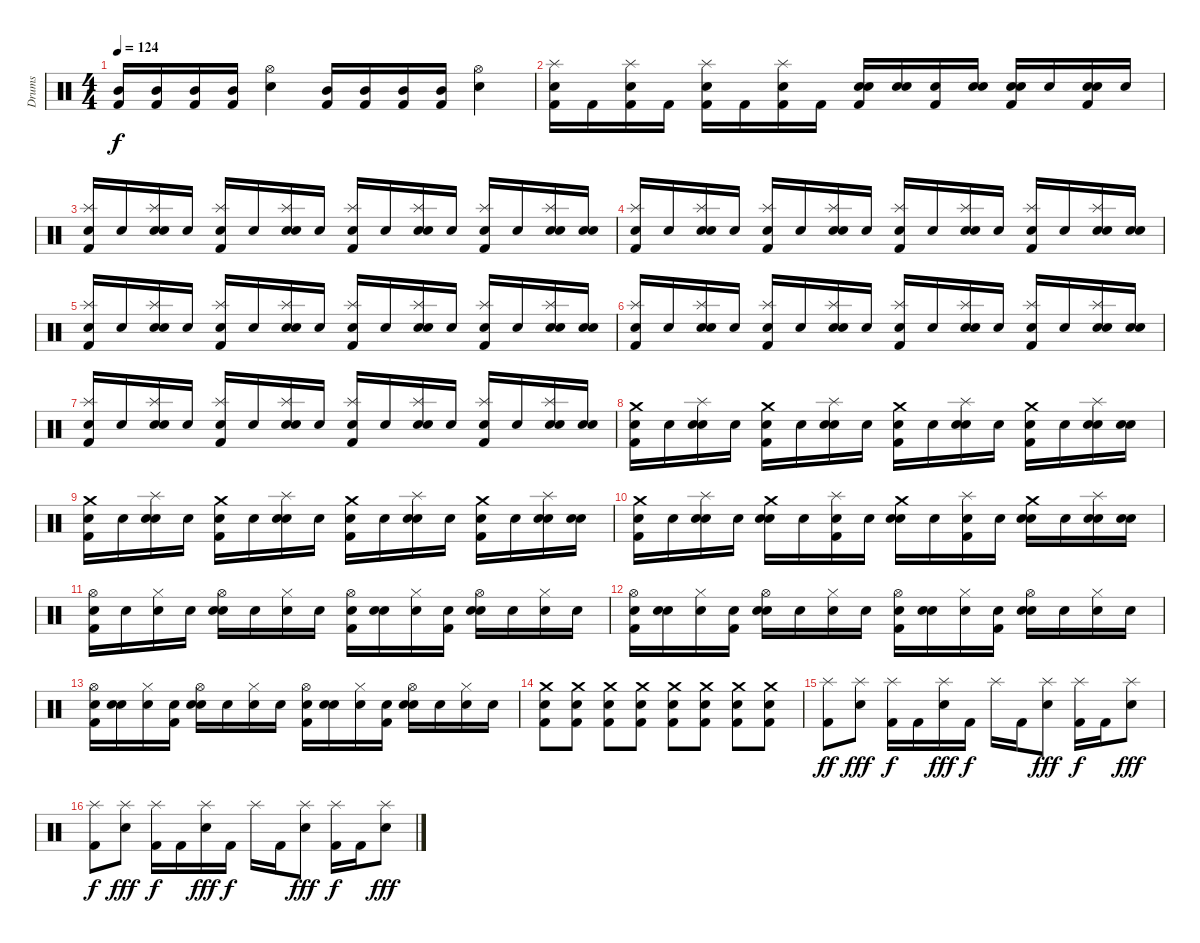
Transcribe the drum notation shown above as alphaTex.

\track ("Drums" "Drums") {instrument percussion}
\staff {score}
\articulation defaults
\ts (4 4)
\tempo 124
\clef neutral
\ks c
("Mid Tom (hit)" "Kick (hit) 2").16{dy f} ("Mid Tom (hit)" "Kick (hit) 2").16 ("Mid Tom (hit)" "Kick (hit) 2").16 ("Mid Tom (hit)" "Kick (hit) 2").16 ("Hi-Hat (open)" "Electric Snare (hit)").4 ("Mid Tom (hit)" "Kick (hit) 2").16 ("Mid Tom (hit)" "Kick (hit) 2").16 ("Mid Tom (hit)" "Kick (hit) 2").16 ("Mid Tom (hit)" "Kick (hit) 2").16 ("Hi-Hat (open)" "Electric Snare (hit)").4 |
("Splash (hit)" "Electric Snare (hit)" "Kick (hit) 2").16 "Kick (hit) 2".16 ("Splash (hit)" "Electric Snare (hit)" "Kick (hit) 2").16 "Kick (hit) 2".16 ("Splash (hit)" "Electric Snare (hit)" "Kick (hit) 2").16 "Kick (hit) 2".16 ("Splash (hit)" "Electric Snare (hit)" "Kick (hit) 2").16 "Kick (hit) 2".16 ("Snare (hit)"{x} "Electric Snare (hit)" "Kick (hit) 2").16 ("Snare (hit)"{x} "Electric Snare (hit)").16 ("Snare (hit)"{x} "Kick (hit) 2").16 ("Snare (hit)"{x} "Electric Snare (hit)").16 ("Snare (hit)"{x} "Electric Snare (hit)" "Kick (hit) 2").16 "Snare (hit)"{x}.16 ("Snare (hit)"{x} "Electric Snare (hit)" "Kick (hit) 2").16 "Snare (hit)"{x}.16 |
("Snare (hit)"{x} "Splash (hit)" "Kick (hit) 2").16 "Snare (hit)"{x}.16 ("Snare (hit)"{x} "Splash (hit)" "Electric Snare (hit)").16 "Snare (hit)"{x}.16 ("Snare (hit)"{x} "Splash (hit)" "Kick (hit) 2").16 "Snare (hit)"{x}.16 ("Snare (hit)"{x} "Splash (hit)" "Electric Snare (hit)").16 "Snare (hit)"{x}.16 ("Snare (hit)"{x} "Splash (hit)" "Kick (hit) 2").16 "Snare (hit)"{x}.16 ("Snare (hit)"{x} "Splash (hit)" "Electric Snare (hit)").16 "Snare (hit)"{x}.16 ("Snare (hit)"{x} "Splash (hit)" "Kick (hit) 2").16 "Snare (hit)"{x}.16 ("Snare (hit)"{x} "Splash (hit)" "Electric Snare (hit)").16 ("Snare (hit)"{x} "Electric Snare (hit)").16 |
("Snare (hit)"{x} "Splash (hit)" "Kick (hit) 2").16 "Snare (hit)"{x}.16 ("Snare (hit)"{x} "Splash (hit)" "Electric Snare (hit)").16 "Snare (hit)"{x}.16 ("Snare (hit)"{x} "Splash (hit)" "Kick (hit) 2").16 "Snare (hit)"{x}.16 ("Snare (hit)"{x} "Splash (hit)" "Electric Snare (hit)").16 "Snare (hit)"{x}.16 ("Snare (hit)"{x} "Splash (hit)" "Kick (hit) 2").16 "Snare (hit)"{x}.16 ("Snare (hit)"{x} "Splash (hit)" "Electric Snare (hit)").16 "Snare (hit)"{x}.16 ("Snare (hit)"{x} "Splash (hit)" "Kick (hit) 2").16 "Snare (hit)"{x}.16 ("Snare (hit)"{x} "Splash (hit)" "Electric Snare (hit)").16 ("Snare (hit)"{x} "Electric Snare (hit)").16 |
("Snare (hit)"{x} "Splash (hit)" "Kick (hit) 2").16 "Snare (hit)"{x}.16 ("Snare (hit)"{x} "Splash (hit)" "Electric Snare (hit)").16 "Snare (hit)"{x}.16 ("Snare (hit)"{x} "Splash (hit)" "Kick (hit) 2").16 "Snare (hit)"{x}.16 ("Snare (hit)"{x} "Splash (hit)" "Electric Snare (hit)").16 "Snare (hit)"{x}.16 ("Snare (hit)"{x} "Splash (hit)" "Kick (hit) 2").16 "Snare (hit)"{x}.16 ("Snare (hit)"{x} "Splash (hit)" "Electric Snare (hit)").16 "Snare (hit)"{x}.16 ("Snare (hit)"{x} "Splash (hit)" "Kick (hit) 2").16 "Snare (hit)"{x}.16 ("Snare (hit)"{x} "Splash (hit)" "Electric Snare (hit)").16 ("Snare (hit)"{x} "Electric Snare (hit)").16 |
("Snare (hit)"{x} "Splash (hit)" "Kick (hit) 2").16 "Snare (hit)"{x}.16 ("Snare (hit)"{x} "Splash (hit)" "Electric Snare (hit)").16 "Snare (hit)"{x}.16 ("Snare (hit)"{x} "Splash (hit)" "Kick (hit) 2").16 "Snare (hit)"{x}.16 ("Snare (hit)"{x} "Splash (hit)" "Electric Snare (hit)").16 "Snare (hit)"{x}.16 ("Snare (hit)"{x} "Splash (hit)" "Kick (hit) 2").16 "Snare (hit)"{x}.16 ("Snare (hit)"{x} "Splash (hit)" "Electric Snare (hit)").16 "Snare (hit)"{x}.16 ("Snare (hit)"{x} "Splash (hit)" "Kick (hit) 2").16 "Snare (hit)"{x}.16 ("Snare (hit)"{x} "Splash (hit)" "Electric Snare (hit)").16 ("Snare (hit)"{x} "Electric Snare (hit)").16 |
("Snare (hit)"{x} "Splash (hit)" "Kick (hit) 2").16 "Snare (hit)"{x}.16 ("Snare (hit)"{x} "Splash (hit)" "Electric Snare (hit)").16 "Snare (hit)"{x}.16 ("Snare (hit)"{x} "Splash (hit)" "Kick (hit) 2").16 "Snare (hit)"{x}.16 ("Snare (hit)"{x} "Splash (hit)" "Electric Snare (hit)").16 "Snare (hit)"{x}.16 ("Snare (hit)"{x} "Splash (hit)" "Kick (hit) 2").16 "Snare (hit)"{x}.16 ("Snare (hit)"{x} "Splash (hit)" "Electric Snare (hit)").16 "Snare (hit)"{x}.16 ("Snare (hit)"{x} "Splash (hit)" "Kick (hit) 2").16 "Snare (hit)"{x}.16 ("Snare (hit)"{x} "Splash (hit)" "Electric Snare (hit)").16 ("Snare (hit)"{x} "Electric Snare (hit)").16 |
("Snare (hit)"{x} "Crash medium (hit)" "Kick (hit) 2").16 "Snare (hit)"{x}.16 ("Snare (hit)"{x} "Splash (hit)" "Electric Snare (hit)").16 "Snare (hit)"{x}.16 ("Snare (hit)"{x} "Crash medium (hit)" "Kick (hit) 2").16 "Snare (hit)"{x}.16 ("Snare (hit)"{x} "Splash (hit)" "Electric Snare (hit)").16 "Snare (hit)"{x}.16 ("Snare (hit)"{x} "Crash medium (hit)" "Kick (hit) 2").16 "Snare (hit)"{x}.16 ("Snare (hit)"{x} "Splash (hit)" "Electric Snare (hit)").16 "Snare (hit)"{x}.16 ("Snare (hit)"{x} "Crash medium (hit)" "Kick (hit) 2").16 "Snare (hit)"{x}.16 ("Snare (hit)"{x} "Splash (hit)" "Electric Snare (hit)").16 ("Snare (hit)"{x} "Electric Snare (hit)").16 |
("Snare (hit)"{x} "Crash medium (hit)" "Kick (hit) 2").16 "Snare (hit)"{x}.16 ("Snare (hit)"{x} "Splash (hit)" "Electric Snare (hit)").16 "Snare (hit)"{x}.16 ("Snare (hit)"{x} "Crash medium (hit)" "Kick (hit) 2").16 "Snare (hit)"{x}.16 ("Snare (hit)"{x} "Splash (hit)" "Electric Snare (hit)").16 "Snare (hit)"{x}.16 ("Snare (hit)"{x} "Crash medium (hit)" "Kick (hit) 2").16 "Snare (hit)"{x}.16 ("Snare (hit)"{x} "Splash (hit)" "Electric Snare (hit)").16 "Snare (hit)"{x}.16 ("Snare (hit)"{x} "Crash medium (hit)" "Kick (hit) 2").16 "Snare (hit)"{x}.16 ("Snare (hit)"{x} "Splash (hit)" "Electric Snare (hit)").16 ("Snare (hit)"{x} "Electric Snare (hit)").16 |
("Snare (hit)"{x} "Crash medium (hit)" "Kick (hit) 2").16 "Snare (hit)"{x}.16 ("Snare (hit)"{x} "Splash (hit)" "Electric Snare (hit)").16 "Snare (hit)"{x}.16 ("Snare (hit)"{x} "Crash medium (hit)" "Electric Snare (hit)").16 "Snare (hit)"{x}.16 ("Snare (hit)"{x} "Splash (hit)" "Kick (hit) 2").16 "Snare (hit)"{x}.16 ("Snare (hit)"{x} "Crash medium (hit)" "Electric Snare (hit)").16 "Snare (hit)"{x}.16 ("Snare (hit)"{x} "Splash (hit)" "Kick (hit) 2").16 "Snare (hit)"{x}.16 ("Snare (hit)"{x} "Crash medium (hit)" "Electric Snare (hit)").16 "Snare (hit)"{x}.16 ("Snare (hit)"{x} "Splash (hit)" "Electric Snare (hit)").16 ("Snare (hit)"{x} "Electric Snare (hit)").16 |
("Snare (hit)"{x} "Hi-Hat (open)" "Kick (hit) 2").16 "Snare (hit)"{x}.16 ("Snare (hit)"{x} "Hi-Hat (closed)").16 "Snare (hit)"{x}.16 ("Snare (hit)"{x} "Hi-Hat (open)" "Electric Snare (hit)").16 "Snare (hit)"{x}.16 ("Snare (hit)"{x} "Hi-Hat (closed)").16 "Snare (hit)"{x}.16 ("Snare (hit)"{x} "Hi-Hat (open)" "Kick (hit) 2").16 ("Snare (hit)"{x} "Electric Snare (hit)").16 ("Snare (hit)"{x} "Hi-Hat (closed)").16 ("Snare (hit)"{x} "Kick (hit) 2").16 ("Snare (hit)"{x} "Hi-Hat (open)" "Electric Snare (hit)").16 "Snare (hit)"{x}.16 ("Snare (hit)"{x} "Hi-Hat (closed)").16 "Snare (hit)"{x}.16 |
("Snare (hit)"{x} "Hi-Hat (open)" "Kick (hit) 2").16 ("Snare (hit)"{x} "Electric Snare (hit)").16 ("Snare (hit)"{x} "Hi-Hat (closed)").16 ("Snare (hit)"{x} "Kick (hit) 2").16 ("Snare (hit)"{x} "Hi-Hat (open)" "Electric Snare (hit)").16 "Snare (hit)"{x}.16 ("Snare (hit)"{x} "Hi-Hat (closed)").16 "Snare (hit)"{x}.16 ("Snare (hit)"{x} "Hi-Hat (open)" "Kick (hit) 2").16 ("Snare (hit)"{x} "Electric Snare (hit)").16 ("Snare (hit)"{x} "Hi-Hat (closed)").16 ("Snare (hit)"{x} "Kick (hit) 2").16 ("Snare (hit)"{x} "Hi-Hat (open)" "Electric Snare (hit)").16 "Snare (hit)"{x}.16 ("Snare (hit)"{x} "Hi-Hat (closed)").16 "Snare (hit)"{x}.16 |
("Snare (hit)"{x} "Hi-Hat (open)" "Kick (hit) 2").16 ("Snare (hit)"{x} "Electric Snare (hit)").16 ("Snare (hit)"{x} "Hi-Hat (closed)").16 ("Snare (hit)"{x} "Kick (hit) 2").16 ("Snare (hit)"{x} "Hi-Hat (open)" "Electric Snare (hit)").16 "Snare (hit)"{x}.16 ("Snare (hit)"{x} "Hi-Hat (closed)").16 "Snare (hit)"{x}.16 ("Snare (hit)"{x} "Hi-Hat (open)" "Kick (hit) 2").16 ("Snare (hit)"{x} "Electric Snare (hit)").16 ("Snare (hit)"{x} "Hi-Hat (closed)").16 ("Snare (hit)"{x} "Kick (hit) 2").16 ("Snare (hit)"{x} "Hi-Hat (open)" "Electric Snare (hit)").16 "Snare (hit)"{x}.16 ("Snare (hit)"{x} "Hi-Hat (closed)").16 "Snare (hit)"{x}.16 |
("Crash medium (hit)" "Electric Snare (hit)" "Kick (hit) 2").8 ("Crash medium (hit)" "Electric Snare (hit)" "Kick (hit) 2").8 ("Crash medium (hit)" "Electric Snare (hit)" "Kick (hit) 2").8 ("Crash medium (hit)" "Electric Snare (hit)" "Kick (hit) 2").8 ("Crash medium (hit)" "Electric Snare (hit)" "Kick (hit) 2").8 ("Crash medium (hit)" "Electric Snare (hit)" "Kick (hit) 2").8 ("Crash medium (hit)" "Electric Snare (hit)" "Kick (hit) 2").8 ("Crash medium (hit)" "Electric Snare (hit)" "Kick (hit) 2").8 |
("Splash (hit)" "Kick (hit) 2").8{dy ff} ("Splash (hit)" "Electric Snare (hit)").8{dy fff} ("Splash (hit)" "Kick (hit) 2").16{dy f} "Kick (hit) 2".16 ("Splash (hit)" "Electric Snare (hit)").16{dy fff} "Kick (hit) 2".16{dy f} "Splash (hit)".16 "Kick (hit) 2".16 ("Splash (hit)" "Electric Snare (hit)").8{dy fff} ("Splash (hit)" "Kick (hit) 2").16{dy f} "Kick (hit) 2".16 ("Splash (hit)" "Electric Snare (hit)").8{dy fff} |
("Splash (hit)" "Kick (hit) 2").8{dy f} ("Splash (hit)" "Electric Snare (hit)").8{dy fff} ("Splash (hit)" "Kick (hit) 2").16{dy f} "Kick (hit) 2".16 ("Splash (hit)" "Electric Snare (hit)").16{dy fff} "Kick (hit) 2".16{dy f} "Splash (hit)".16 "Kick (hit) 2".16 ("Splash (hit)" "Electric Snare (hit)").8{dy fff} ("Splash (hit)" "Kick (hit) 2").16{dy f} "Kick (hit) 2".16 ("Splash (hit)" "Electric Snare (hit)").8{dy fff}
